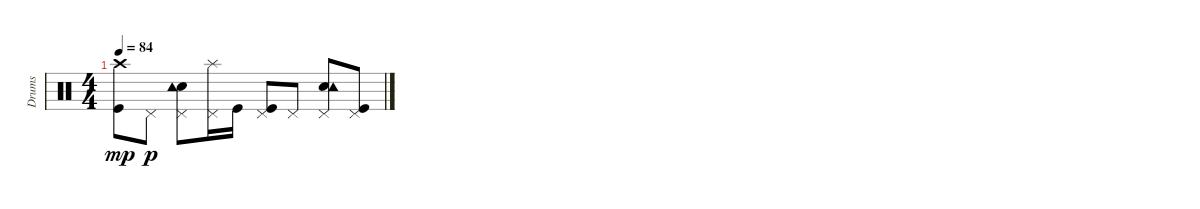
\track ("Drums" "Drums") {instrument percussion}
\staff {score}
\articulation defaults
\ts (4 4)
\tempo 84
\clef neutral
\ks c
("Kick (hit)" "Crash high (hit)").8{dy mp} "Pedal Hi-Hat (hit)".8{dy p} ("Electric Snare (hit)" "Pedal Hi-Hat (hit)" "Tambourine (hit)").8 ("Pedal Hi-Hat (hit)" "Splash (hit)").16 "Kick (hit)".16 ("Kick (hit)" "Pedal Hi-Hat (hit)").8 "Pedal Hi-Hat (hit)".8 ("Electric Snare (hit)" "Pedal Hi-Hat (hit)" "Tambourine (hit)").8 ("Kick (hit)" "Pedal Hi-Hat (hit)").8
